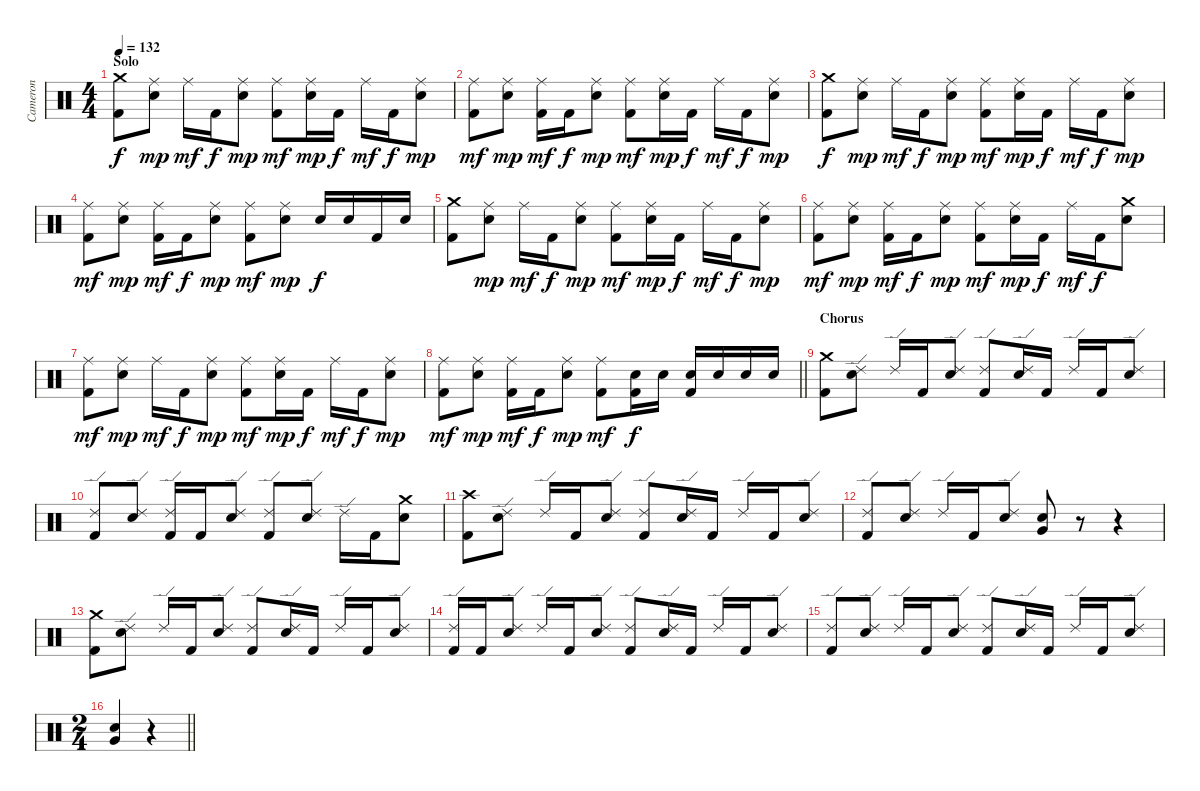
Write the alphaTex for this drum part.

\track ("Cameron" "Cameron") {instrument percussion}
\staff {score}
\articulation defaults
\ts (4 4)
\section ("" "Solo")
\tempo 132
\clef neutral
\ks c
("Crash medium (hit)" "Kick (hit) 2").8{dy f} ("Ride (middle)" "Snare (hit) 2").8{dy mp} "Ride (middle)".16{dy mf} "Kick (hit) 2".16{dy f} ("Ride (middle)" "Snare (hit) 2").8{dy mp} ("Ride (middle)" "Kick (hit) 2").8{dy mf} ("Ride (middle)" "Snare (hit) 2").16{dy mp} "Kick (hit) 2".16{dy f} "Ride (middle)".16{dy mf} "Kick (hit) 2".16{dy f} ("Ride (middle)" "Snare (hit) 2").8{dy mp} |
("Ride (middle)" "Kick (hit) 2").8{dy mf} ("Ride (middle)" "Snare (hit) 2").8{dy mp} ("Ride (middle)" "Kick (hit) 2").16{dy mf} "Kick (hit) 2".16{dy f} ("Ride (middle)" "Snare (hit) 2").8{dy mp} ("Ride (middle)" "Kick (hit) 2").8{dy mf} ("Ride (middle)" "Snare (hit) 2").16{dy mp} "Kick (hit) 2".16{dy f} "Ride (middle)".16{dy mf} "Kick (hit) 2".16{dy f} ("Ride (middle)" "Snare (hit) 2").8{dy mp} |
("Crash medium (hit)" "Kick (hit) 2").8{dy f} ("Ride (middle)" "Snare (hit) 2").8{dy mp} "Ride (middle)".16{dy mf} "Kick (hit) 2".16{dy f} ("Ride (middle)" "Snare (hit) 2").8{dy mp} ("Ride (middle)" "Kick (hit) 2").8{dy mf} ("Ride (middle)" "Snare (hit) 2").16{dy mp} "Kick (hit) 2".16{dy f} "Ride (middle)".16{dy mf} "Kick (hit) 2".16{dy f} ("Ride (middle)" "Snare (hit) 2").8{dy mp} |
("Ride (middle)" "Kick (hit) 2").8{dy mf} ("Ride (middle)" "Snare (hit) 2").8{dy mp} ("Ride (middle)" "Kick (hit) 2").16{dy mf} "Kick (hit) 2".16{dy f} ("Ride (middle)" "Snare (hit) 2").8{dy mp} ("Ride (middle)" "Kick (hit) 2").8{dy mf} ("Ride (middle)" "Snare (hit) 2").8{dy mp} "Snare (hit) 2".16{dy f} "Snare (hit) 2".16 "Kick (hit) 2".16 "Snare (hit) 2".16 |
("Crash medium (hit)" "Kick (hit) 2").8 ("Ride (middle)" "Snare (hit) 2").8{dy mp} "Ride (middle)".16{dy mf} "Kick (hit) 2".16{dy f} ("Ride (middle)" "Snare (hit) 2").8{dy mp} ("Ride (middle)" "Kick (hit) 2").8{dy mf} ("Ride (middle)" "Snare (hit) 2").16{dy mp} "Kick (hit) 2".16{dy f} "Ride (middle)".16{dy mf} "Kick (hit) 2".16{dy f} ("Ride (middle)" "Snare (hit) 2").8{dy mp} |
("Ride (middle)" "Kick (hit) 2").8{dy mf} ("Ride (middle)" "Snare (hit) 2").8{dy mp} ("Ride (middle)" "Kick (hit) 2").16{dy mf} "Kick (hit) 2".16{dy f} ("Ride (middle)" "Snare (hit) 2").8{dy mp} ("Ride (middle)" "Kick (hit) 2").8{dy mf} ("Ride (middle)" "Snare (hit) 2").16{dy mp} "Kick (hit) 2".16{dy f} "Ride (middle)".16{dy mf} "Kick (hit) 2".16{dy f} ("Crash medium (hit)" "Snare (hit) 2").8 |
("Ride (middle)" "Kick (hit) 2").8{dy mf} ("Ride (middle)" "Snare (hit) 2").8{dy mp} "Ride (middle)".16{dy mf} "Kick (hit) 2".16{dy f} ("Ride (middle)" "Snare (hit) 2").8{dy mp} ("Ride (middle)" "Kick (hit) 2").8{dy mf} ("Ride (middle)" "Snare (hit) 2").16{dy mp} "Kick (hit) 2".16{dy f} "Ride (middle)".16{dy mf} "Kick (hit) 2".16{dy f} ("Ride (middle)" "Snare (hit) 2").8{dy mp} |
\barLineRight lightlight
("Ride (middle)" "Kick (hit) 2").8{dy mf} ("Ride (middle)" "Snare (hit) 2").8{dy mp} ("Ride (middle)" "Kick (hit) 2").16{dy mf} "Kick (hit) 2".16{dy f} ("Ride (middle)" "Snare (hit) 2").8{dy mp} ("Ride (middle)" "Kick (hit) 2").8{dy mf} ("Snare (hit) 2" "Kick (hit) 2").16{dy f} "Snare (hit) 2".16 ("Snare (hit) 2" "Kick (hit) 2").16 "Snare (hit) 2".16 "Snare (hit) 2".16 "Snare (hit) 2".16 |
\section ("" "Chorus")
("Crash medium (hit)" "Kick (hit) 2").8 ("Ride (edge) 2" "Snare (hit) 2").8 "Ride (edge) 2".16 "Kick (hit) 2".16 ("Ride (edge) 2" "Snare (hit) 2").8 ("Ride (edge) 2" "Kick (hit) 2").8 ("Ride (edge) 2" "Snare (hit) 2").16 "Kick (hit) 2".16 "Ride (edge) 2".16 "Kick (hit) 2".16 ("Ride (edge) 2" "Snare (hit) 2").8 |
("Ride (edge) 2" "Kick (hit) 2").8 ("Ride (edge) 2" "Snare (hit) 2").8 ("Ride (edge) 2" "Kick (hit) 2").16 "Kick (hit) 2".16 ("Ride (edge) 2" "Snare (hit) 2").8 ("Ride (edge) 2" "Kick (hit) 2").8 ("Ride (edge) 2" "Snare (hit) 2").8 "Ride (edge) 2".16 "Kick (hit) 2".16 ("Crash medium (hit)" "Snare (hit) 2").8 |
("Crash high (hit)" "Kick (hit) 2").8 ("Ride (edge) 2" "Snare (hit) 2").8 "Ride (edge) 2".16 "Kick (hit) 2".16 ("Ride (edge) 2" "Snare (hit) 2").8 ("Ride (edge) 2" "Kick (hit) 2").8 ("Ride (edge) 2" "Snare (hit) 2").16 "Kick (hit) 2".16 "Ride (edge) 2".16 "Kick (hit) 2".16 ("Ride (edge) 2" "Snare (hit) 2").8 |
("Ride (edge) 2" "Kick (hit) 2").8 ("Ride (edge) 2" "Snare (hit) 2").8 "Ride (edge) 2".16 "Kick (hit) 2".16 ("Ride (edge) 2" "Snare (hit) 2").8 ("Snare (hit) 2" "Very Low Tom (hit)").8 r.8 r.4 |
("Crash medium (hit)" "Kick (hit) 2").8 ("Ride (edge) 2" "Snare (hit) 2").8 "Ride (edge) 2".16 "Kick (hit) 2".16 ("Ride (edge) 2" "Snare (hit) 2").8 ("Ride (edge) 2" "Kick (hit) 2").8 ("Ride (edge) 2" "Snare (hit) 2").16 "Kick (hit) 2".16 "Ride (edge) 2".16 "Kick (hit) 2".16 ("Ride (edge) 2" "Snare (hit) 2").8 |
("Ride (edge) 2" "Kick (hit) 2").16 "Kick (hit) 2".16 ("Ride (edge) 2" "Snare (hit) 2").8 "Ride (edge) 2".16 "Kick (hit) 2".16 ("Ride (edge) 2" "Snare (hit) 2").8 ("Ride (edge) 2" "Kick (hit) 2").8 ("Ride (edge) 2" "Snare (hit) 2").16 "Kick (hit) 2".16 "Ride (edge) 2".16 "Kick (hit) 2".16 ("Ride (edge) 2" "Snare (hit) 2").8 |
("Ride (edge) 2" "Kick (hit) 2").8 ("Ride (edge) 2" "Snare (hit) 2").8 "Ride (edge) 2".16 "Kick (hit) 2".16 ("Ride (edge) 2" "Snare (hit) 2").8 ("Ride (edge) 2" "Kick (hit) 2").8 ("Ride (edge) 2" "Snare (hit) 2").16 "Kick (hit) 2".16 "Ride (edge) 2".16 "Kick (hit) 2".16 ("Ride (edge) 2" "Snare (hit) 2").8 |
\ts (2 4)
\barLineRight lightlight
("Snare (hit) 2" "Very Low Tom (hit)").4 r.4
